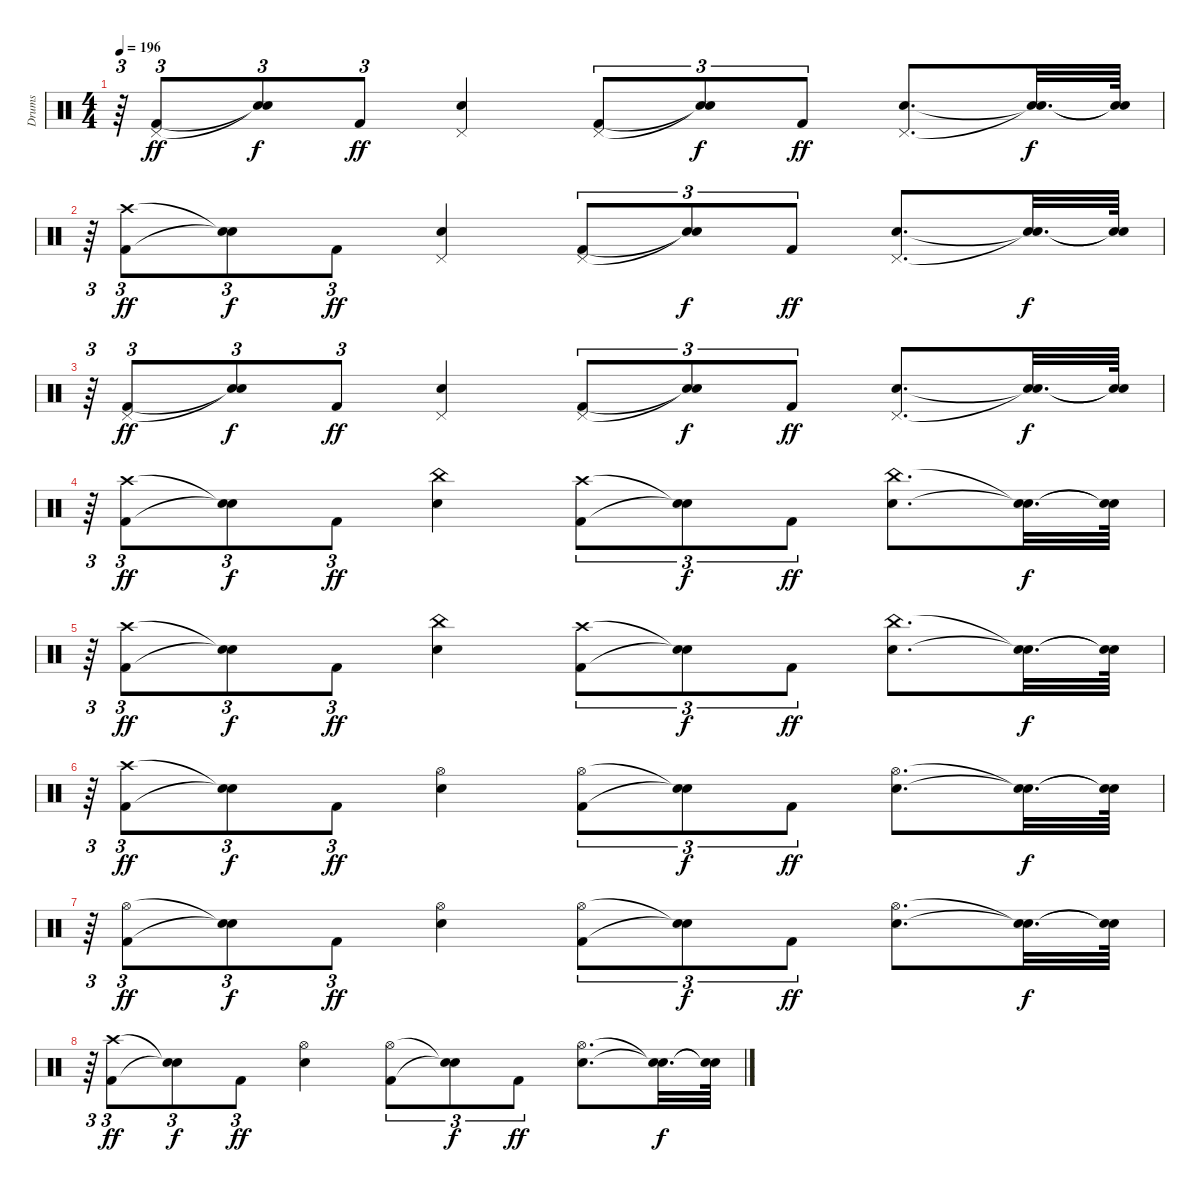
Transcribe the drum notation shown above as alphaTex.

\track ("Drums" "Drums") {instrument percussion}
\staff {score}
\articulation defaults
\ts (4 4)
\tempo 196
\clef neutral
\ks c
r.64{tu (3 2) dy f} ("Kick (hit) 2" "Pedal Hi-Hat (hit)").8{tu (3 2) dy ff} ("Snare (hit)"{t} "Snare (hit)"{t}).8{tu (3 2) dy f} "Kick (hit) 2".8{tu (3 2) dy ff} ("Pedal Hi-Hat (hit)" "Electric Snare (hit)").4 ("Kick (hit) 2" "Pedal Hi-Hat (hit)").8{tu (3 2)} ("Snare (hit)"{t} "Snare (hit)"{t}).8{tu (3 2) dy f} "Kick (hit) 2".8{tu (3 2) dy ff} ("Pedal Hi-Hat (hit)" "Electric Snare (hit)").8{d} ("Snare (hit)"{t} "Snare (hit)"{t}).32{d dy f} ("Snare (hit)"{t} "Snare (hit)"{t}).64 |
r.64{tu (3 2)} ("Kick (hit) 2" "Crash high (hit)").8{tu (3 2) dy ff} ("Snare (hit)"{t} "Snare (hit)"{t}).8{tu (3 2) dy f} "Kick (hit) 2".8{tu (3 2) dy ff} ("Pedal Hi-Hat (hit)" "Electric Snare (hit)").4 ("Kick (hit) 2" "Pedal Hi-Hat (hit)").8{tu (3 2)} ("Snare (hit)"{t} "Snare (hit)"{t}).8{tu (3 2) dy f} "Kick (hit) 2".8{tu (3 2) dy ff} ("Pedal Hi-Hat (hit)" "Electric Snare (hit)").8{d} ("Snare (hit)"{t} "Snare (hit)"{t}).32{d dy f} ("Snare (hit)"{t} "Snare (hit)"{t}).64 |
r.64{tu (3 2)} ("Kick (hit) 2" "Pedal Hi-Hat (hit)").8{tu (3 2) dy ff} ("Snare (hit)"{t} "Snare (hit)"{t}).8{tu (3 2) dy f} "Kick (hit) 2".8{tu (3 2) dy ff} ("Pedal Hi-Hat (hit)" "Electric Snare (hit)").4 ("Kick (hit) 2" "Pedal Hi-Hat (hit)").8{tu (3 2)} ("Snare (hit)"{t} "Snare (hit)"{t}).8{tu (3 2) dy f} "Kick (hit) 2".8{tu (3 2) dy ff} ("Pedal Hi-Hat (hit)" "Electric Snare (hit)").8{d} ("Snare (hit)"{t} "Snare (hit)"{t}).32{d dy f} ("Snare (hit)"{t} "Snare (hit)"{t}).64 |
r.64{tu (3 2)} ("Crash high (hit)" "Kick (hit) 2").8{tu (3 2) dy ff} ("Snare (hit)"{t} "Snare (hit)"{t}).8{tu (3 2) dy f} "Kick (hit) 2".8{tu (3 2) dy ff} ("China (hit)" "Electric Snare (hit)").4 ("Crash high (hit)" "Kick (hit) 2").8{tu (3 2)} ("Snare (hit)"{t} "Snare (hit)"{t}).8{tu (3 2) dy f} "Kick (hit) 2".8{tu (3 2) dy ff} ("China (hit)" "Electric Snare (hit)").8{d} ("Snare (hit)"{t} "Snare (hit)"{t}).32{d dy f} ("Snare (hit)"{t} "Snare (hit)"{t}).64 |
r.64{tu (3 2)} ("Crash high (hit)" "Kick (hit) 2").8{tu (3 2) dy ff} ("Snare (hit)"{t} "Snare (hit)"{t}).8{tu (3 2) dy f} "Kick (hit) 2".8{tu (3 2) dy ff} ("China (hit)" "Electric Snare (hit)").4 ("Crash high (hit)" "Kick (hit) 2").8{tu (3 2)} ("Snare (hit)"{t} "Snare (hit)"{t}).8{tu (3 2) dy f} "Kick (hit) 2".8{tu (3 2) dy ff} ("China (hit)" "Electric Snare (hit)").8{d} ("Snare (hit)"{t} "Snare (hit)"{t}).32{d dy f} ("Snare (hit)"{t} "Snare (hit)"{t}).64 |
r.64{tu (3 2)} ("Kick (hit) 2" "Crash high (hit)").8{tu (3 2) dy ff} ("Snare (hit)"{t} "Snare (hit)"{t}).8{tu (3 2) dy f} "Kick (hit) 2".8{tu (3 2) dy ff} ("Hi-Hat (open)" "Electric Snare (hit)").4 ("Kick (hit) 2" "Hi-Hat (open)").8{tu (3 2)} ("Snare (hit)"{t} "Snare (hit)"{t}).8{tu (3 2) dy f} "Kick (hit) 2".8{tu (3 2) dy ff} ("Hi-Hat (open)" "Electric Snare (hit)").8{d} ("Snare (hit)"{t} "Snare (hit)"{t}).32{d dy f} ("Snare (hit)"{t} "Snare (hit)"{t}).64 |
r.64{tu (3 2)} ("Kick (hit) 2" "Hi-Hat (open)").8{tu (3 2) dy ff} ("Snare (hit)"{t} "Snare (hit)"{t}).8{tu (3 2) dy f} "Kick (hit) 2".8{tu (3 2) dy ff} ("Hi-Hat (open)" "Electric Snare (hit)").4 ("Kick (hit) 2" "Hi-Hat (open)").8{tu (3 2)} ("Snare (hit)"{t} "Snare (hit)"{t}).8{tu (3 2) dy f} "Kick (hit) 2".8{tu (3 2) dy ff} ("Hi-Hat (open)" "Electric Snare (hit)").8{d} ("Snare (hit)"{t} "Snare (hit)"{t}).32{d dy f} ("Snare (hit)"{t} "Snare (hit)"{t}).64 |
r.64{tu (3 2)} ("Kick (hit) 2" "Crash high (hit)").8{tu (3 2) dy ff} ("Snare (hit)"{t} "Snare (hit)"{t}).8{tu (3 2) dy f} "Kick (hit) 2".8{tu (3 2) dy ff} ("Hi-Hat (open)" "Electric Snare (hit)").4 ("Kick (hit) 2" "Hi-Hat (open)").8{tu (3 2)} ("Snare (hit)"{t} "Snare (hit)"{t}).8{tu (3 2) dy f} "Kick (hit) 2".8{tu (3 2) dy ff} ("Hi-Hat (open)" "Electric Snare (hit)").8{d} ("Snare (hit)"{t} "Snare (hit)"{t}).32{d dy f} ("Snare (hit)"{t} "Snare (hit)"{t}).64
